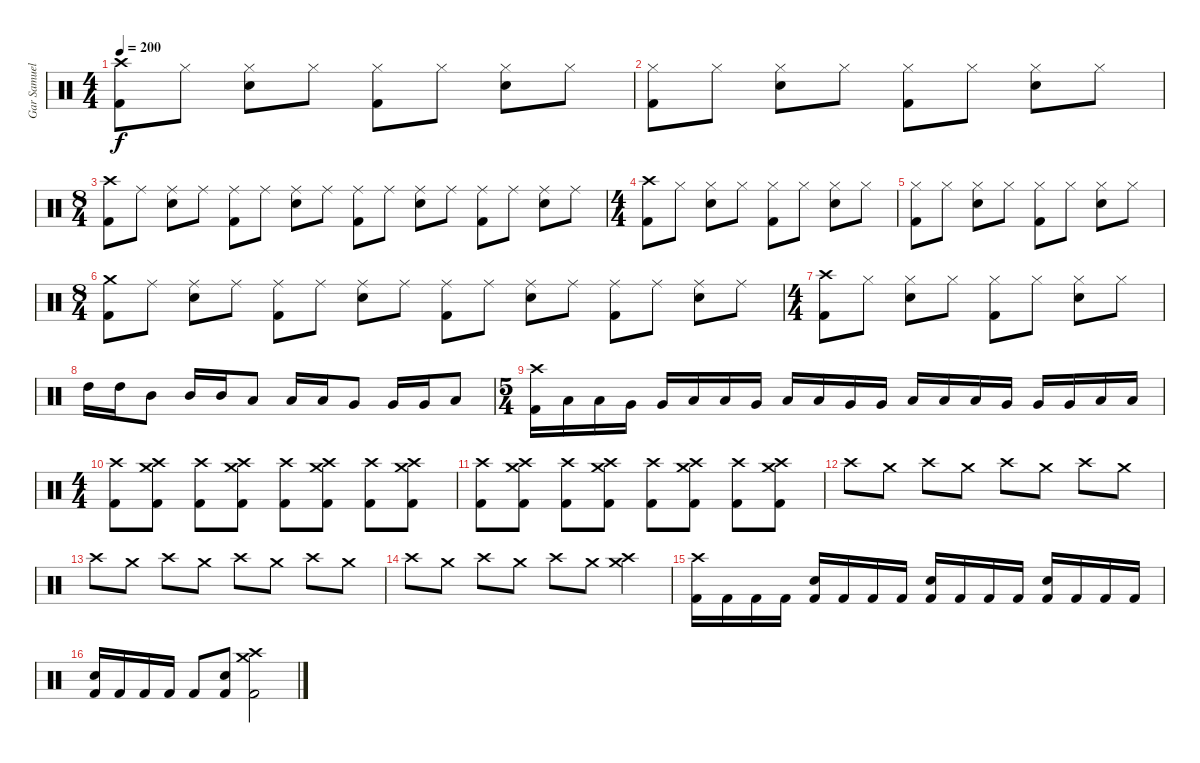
\track ("Gar Samuelson" "Gar Samuel") {instrument percussion}
\staff {score}
\articulation defaults
\ts (4 4)
\tempo 200
\clef neutral
\ks c
("Crash high (hit)" "Kick (hit) 2").8{dy f} "Hi-Hat (closed)".8 ("Hi-Hat (closed)" "Snare (hit) 2").8 "Hi-Hat (closed)".8 ("Hi-Hat (closed)" "Kick (hit) 2").8 "Hi-Hat (closed)".8 ("Hi-Hat (closed)" "Snare (hit) 2").8 "Hi-Hat (closed)".8 |
("Hi-Hat (closed)" "Kick (hit) 2").8 "Hi-Hat (closed)".8 ("Hi-Hat (closed)" "Snare (hit) 2").8 "Hi-Hat (closed)".8 ("Hi-Hat (closed)" "Kick (hit) 2").8 "Hi-Hat (closed)".8 ("Hi-Hat (closed)" "Snare (hit) 2").8 "Hi-Hat (closed)".8 |
\ts (8 4)
("Crash high (hit)" "Kick (hit) 2").8 "Ride (middle)".8 ("Ride (middle)" "Snare (hit) 2").8 "Ride (middle)".8 ("Ride (middle)" "Kick (hit) 2").8 "Ride (middle)".8 ("Ride (middle)" "Snare (hit) 2").8 "Ride (middle)".8 ("Ride (middle)" "Kick (hit) 2").8 "Ride (middle)".8 ("Ride (middle)" "Snare (hit) 2").8 "Ride (middle)".8 ("Ride (middle)" "Kick (hit) 2").8 "Ride (middle)".8 ("Ride (middle)" "Snare (hit) 2").8 "Ride (middle)".8 |
\ts (4 4)
("Crash high (hit)" "Kick (hit) 2").8 "Hi-Hat (closed)".8 ("Hi-Hat (closed)" "Snare (hit) 2").8 "Hi-Hat (closed)".8 ("Hi-Hat (closed)" "Kick (hit) 2").8 "Hi-Hat (closed)".8 ("Hi-Hat (closed)" "Snare (hit) 2").8 "Hi-Hat (closed)".8 |
("Hi-Hat (closed)" "Kick (hit) 2").8 "Hi-Hat (closed)".8 ("Hi-Hat (closed)" "Snare (hit) 2").8 "Hi-Hat (closed)".8 ("Hi-Hat (closed)" "Kick (hit) 2").8 "Hi-Hat (closed)".8 ("Hi-Hat (closed)" "Snare (hit) 2").8 "Hi-Hat (closed)".8 |
\ts (8 4)
("Crash medium (hit)" "Kick (hit) 2").8 "Ride (middle)".8 ("Ride (middle)" "Snare (hit) 2").8 "Ride (middle)".8 ("Ride (middle)" "Kick (hit) 2").8 "Ride (middle)".8 ("Ride (middle)" "Snare (hit) 2").8 "Ride (middle)".8 ("Ride (middle)" "Kick (hit) 2").8 "Ride (middle)".8 ("Ride (middle)" "Snare (hit) 2").8 "Ride (middle)".8 ("Ride (middle)" "Kick (hit) 2").8 "Ride (middle)".8 ("Ride (middle)" "Snare (hit) 2").8 "Ride (middle)".8 |
\ts (4 4)
("Crash high (hit)" "Kick (hit) 2").8 "Hi-Hat (closed)".8 ("Hi-Hat (closed)" "Snare (hit) 2").8 "Hi-Hat (closed)".8 ("Hi-Hat (closed)" "Kick (hit) 2").8 "Hi-Hat (closed)".8 ("Hi-Hat (closed)" "Snare (hit) 2").8 "Hi-Hat (closed)".8 |
"High Tom (hit)".16 "High Tom (hit)".16 "Mid Tom (hit)".8 "Mid Tom (hit)".16 "Mid Tom (hit)".16 "Low Tom (hit)".8 "Low Tom (hit)".16 "Low Tom (hit)".16 "Very Low Tom (hit)".8 "Very Low Tom (hit)".16 "Very Low Tom (hit)".16 "Low Floor Tom (hit)".8 |
\ts (5 4)
("Crash high (hit)" "Kick (hit) 2").16 "Low Tom (hit)".16 "Low Tom (hit)".16 "Very Low Tom (hit)".16 "Very Low Tom (hit)".16 "Low Tom (hit)".16 "Low Tom (hit)".16 "Very Low Tom (hit)".16 "Low Floor Tom (hit)".16 "Low Floor Tom (hit)".16 "Very Low Tom (hit)".16 "Very Low Tom (hit)".16 "Low Tom (hit)".16 "Low Tom (hit)".16 "Low Tom (hit)".16 "Very Low Tom (hit)".16 "Very Low Tom (hit)".16 "Very Low Tom (hit)".16 "Low Floor Tom (hit)".16 "Low Floor Tom (hit)".16 |
\ts (4 4)
("Crash high (hit)" "Kick (hit) 2").8 ("Crash medium (hit)" "Crash high (hit)" "Kick (hit) 2").8 ("Crash high (hit)" "Kick (hit) 2").8 ("Crash medium (hit)" "Crash high (hit)" "Kick (hit) 2").8 ("Crash high (hit)" "Kick (hit) 2").8 ("Crash medium (hit)" "Crash high (hit)" "Kick (hit) 2").8 ("Crash high (hit)" "Kick (hit) 2").8 ("Crash medium (hit)" "Crash high (hit)" "Kick (hit) 2").8 |
("Crash high (hit)" "Kick (hit) 2").8 ("Crash medium (hit)" "Crash high (hit)" "Kick (hit) 2").8 ("Crash high (hit)" "Kick (hit) 2").8 ("Crash medium (hit)" "Crash high (hit)" "Kick (hit) 2").8 ("Crash high (hit)" "Kick (hit) 2").8 ("Crash medium (hit)" "Crash high (hit)" "Kick (hit) 2").8 ("Crash high (hit)" "Kick (hit) 2").8 ("Crash medium (hit)" "Crash high (hit)" "Kick (hit) 2").8 |
"Crash high (hit)".8 "Crash medium (hit)".8 "Crash high (hit)".8 "Crash medium (hit)".8 "Crash high (hit)".8 "Crash medium (hit)".8 "Crash high (hit)".8 "Crash medium (hit)".8 |
"Crash high (hit)".8 "Crash medium (hit)".8 "Crash high (hit)".8 "Crash medium (hit)".8 "Crash high (hit)".8 "Crash medium (hit)".8 "Crash high (hit)".8 "Crash medium (hit)".8 |
"Crash high (hit)".8 "Crash medium (hit)".8 "Crash high (hit)".8 "Crash medium (hit)".8 "Crash high (hit)".8 "Crash medium (hit)".8 ("Crash medium (hit)" "Crash high (hit)").4 |
("Crash high (hit)" "Kick (hit) 2").16 "Kick (hit) 2".16 "Kick (hit) 2".16 "Kick (hit) 2".16 ("Snare (hit) 2" "Kick (hit) 2").16 "Kick (hit) 2".16 "Kick (hit) 2".16 "Kick (hit) 2".16 ("Snare (hit) 2" "Kick (hit) 2").16 "Kick (hit) 2".16 "Kick (hit) 2".16 "Kick (hit) 2".16 ("Snare (hit) 2" "Kick (hit) 2").16 "Kick (hit) 2".16 "Kick (hit) 2".16 "Kick (hit) 2".16 |
("Snare (hit) 2" "Kick (hit) 2").16 "Kick (hit) 2".16 "Kick (hit) 2".16 "Kick (hit) 2".16 "Kick (hit) 2".8 ("Snare (hit) 2" "Kick (hit) 2").8 ("Crash medium (hit)" "Crash high (hit)" "Kick (hit) 2").2
